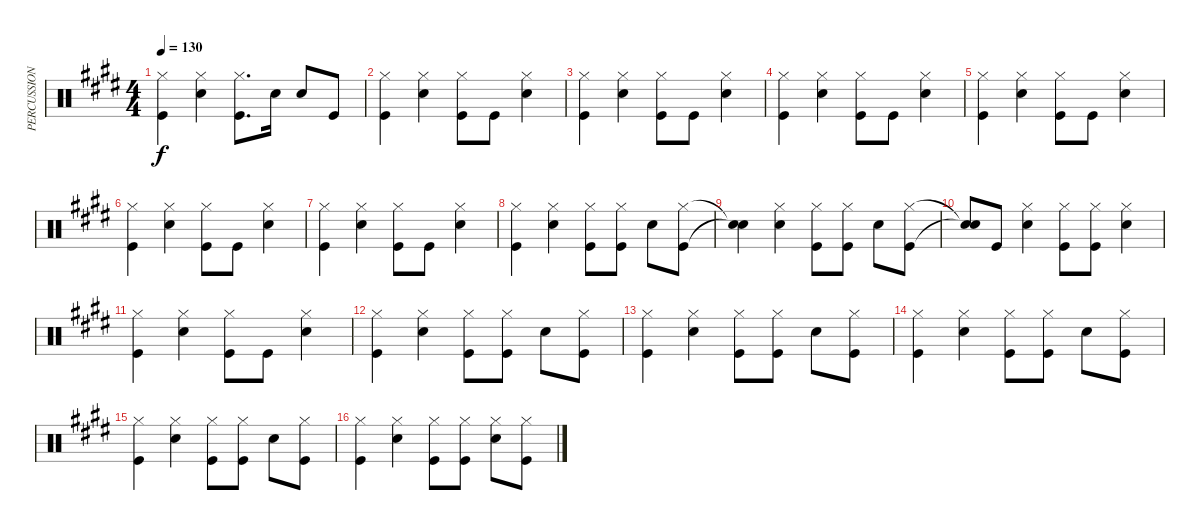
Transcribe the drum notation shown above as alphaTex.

\track ("PERCUSSION" "PERCUSSION") {instrument percussion}
\staff {score}
\articulation defaults
\ts (4 4)
\tempo 130
\clef neutral
\ks e
("Hi-Hat (closed)" "Kick (hit)").4{dy f} ("Hi-Hat (closed)" "Snare (hit) 2").4 ("Hi-Hat (closed)" "Kick (hit)").8{d} "Snare (hit) 2".16 "Snare (hit) 2".8 "Kick (hit)".8 |
("Hi-Hat (closed)" "Kick (hit)").4 ("Hi-Hat (closed)" "Snare (hit) 2").4 ("Hi-Hat (closed)" "Kick (hit)").8 "Kick (hit)".8 ("Hi-Hat (closed)" "Snare (hit) 2").4 |
("Hi-Hat (closed)" "Kick (hit)").4 ("Hi-Hat (closed)" "Snare (hit) 2").4 ("Hi-Hat (closed)" "Kick (hit)").8 "Kick (hit)".8 ("Hi-Hat (closed)" "Snare (hit) 2").4 |
("Hi-Hat (closed)" "Kick (hit)").4 ("Hi-Hat (closed)" "Snare (hit) 2").4 ("Hi-Hat (closed)" "Kick (hit)").8 "Kick (hit)".8 ("Hi-Hat (closed)" "Snare (hit) 2").4 |
("Hi-Hat (closed)" "Kick (hit)").4 ("Hi-Hat (closed)" "Snare (hit) 2").4 ("Hi-Hat (closed)" "Kick (hit)").8 "Kick (hit)".8 ("Hi-Hat (closed)" "Snare (hit) 2").4 |
("Hi-Hat (closed)" "Kick (hit)").4 ("Hi-Hat (closed)" "Snare (hit) 2").4 ("Hi-Hat (closed)" "Kick (hit)").8 "Kick (hit)".8 ("Hi-Hat (closed)" "Snare (hit) 2").4 |
("Hi-Hat (closed)" "Kick (hit)").4 ("Hi-Hat (closed)" "Snare (hit) 2").4 ("Hi-Hat (closed)" "Kick (hit)").8 "Kick (hit)".8 ("Hi-Hat (closed)" "Snare (hit) 2").4 |
("Hi-Hat (closed)" "Kick (hit)").4 ("Hi-Hat (closed)" "Snare (hit) 2").4 ("Hi-Hat (closed)" "Kick (hit)").8 ("Hi-Hat (closed)" "Kick (hit)").8 "Snare (hit) 2".8 ("Hi-Hat (closed)" "Kick (hit)").8 |
("Snare (hit)"{t} "Snare (hit)"{t}).4 ("Hi-Hat (closed)" "Snare (hit) 2").4 ("Hi-Hat (closed)" "Kick (hit)").8 ("Hi-Hat (closed)" "Kick (hit)").8 "Snare (hit) 2".8 ("Hi-Hat (closed)" "Kick (hit)").8 |
("Snare (hit)"{t} "Snare (hit)"{t}).8 "Kick (hit)".8 ("Hi-Hat (closed)" "Snare (hit) 2").4 ("Hi-Hat (closed)" "Kick (hit)").8 ("Hi-Hat (closed)" "Kick (hit)").8 ("Hi-Hat (closed)" "Snare (hit) 2").4 |
("Hi-Hat (closed)" "Kick (hit)").4 ("Hi-Hat (closed)" "Snare (hit) 2").4 ("Hi-Hat (closed)" "Kick (hit)").8 "Kick (hit)".8 ("Hi-Hat (closed)" "Snare (hit) 2").4 |
("Hi-Hat (closed)" "Kick (hit)").4 ("Hi-Hat (closed)" "Snare (hit) 2").4 ("Hi-Hat (closed)" "Kick (hit)").8 ("Hi-Hat (closed)" "Kick (hit)").8 "Snare (hit) 2".8 ("Hi-Hat (closed)" "Kick (hit)").8 |
("Hi-Hat (closed)" "Kick (hit)").4 ("Hi-Hat (closed)" "Snare (hit) 2").4 ("Hi-Hat (closed)" "Kick (hit)").8 ("Hi-Hat (closed)" "Kick (hit)").8 "Snare (hit) 2".8 ("Hi-Hat (closed)" "Kick (hit)").8 |
("Hi-Hat (closed)" "Kick (hit)").4 ("Hi-Hat (closed)" "Snare (hit) 2").4 ("Hi-Hat (closed)" "Kick (hit)").8 ("Hi-Hat (closed)" "Kick (hit)").8 "Snare (hit) 2".8 ("Hi-Hat (closed)" "Kick (hit)").8 |
("Hi-Hat (closed)" "Kick (hit)").4 ("Hi-Hat (closed)" "Snare (hit) 2").4 ("Hi-Hat (closed)" "Kick (hit)").8 ("Hi-Hat (closed)" "Kick (hit)").8 "Snare (hit) 2".8 ("Hi-Hat (closed)" "Kick (hit)").8 |
("Hi-Hat (closed)" "Kick (hit)").4 ("Hi-Hat (closed)" "Snare (hit) 2").4 ("Hi-Hat (closed)" "Kick (hit)").8 ("Hi-Hat (closed)" "Kick (hit)").8 ("Hi-Hat (closed)" "Snare (hit) 2").8 ("Hi-Hat (closed)" "Kick (hit)").8
